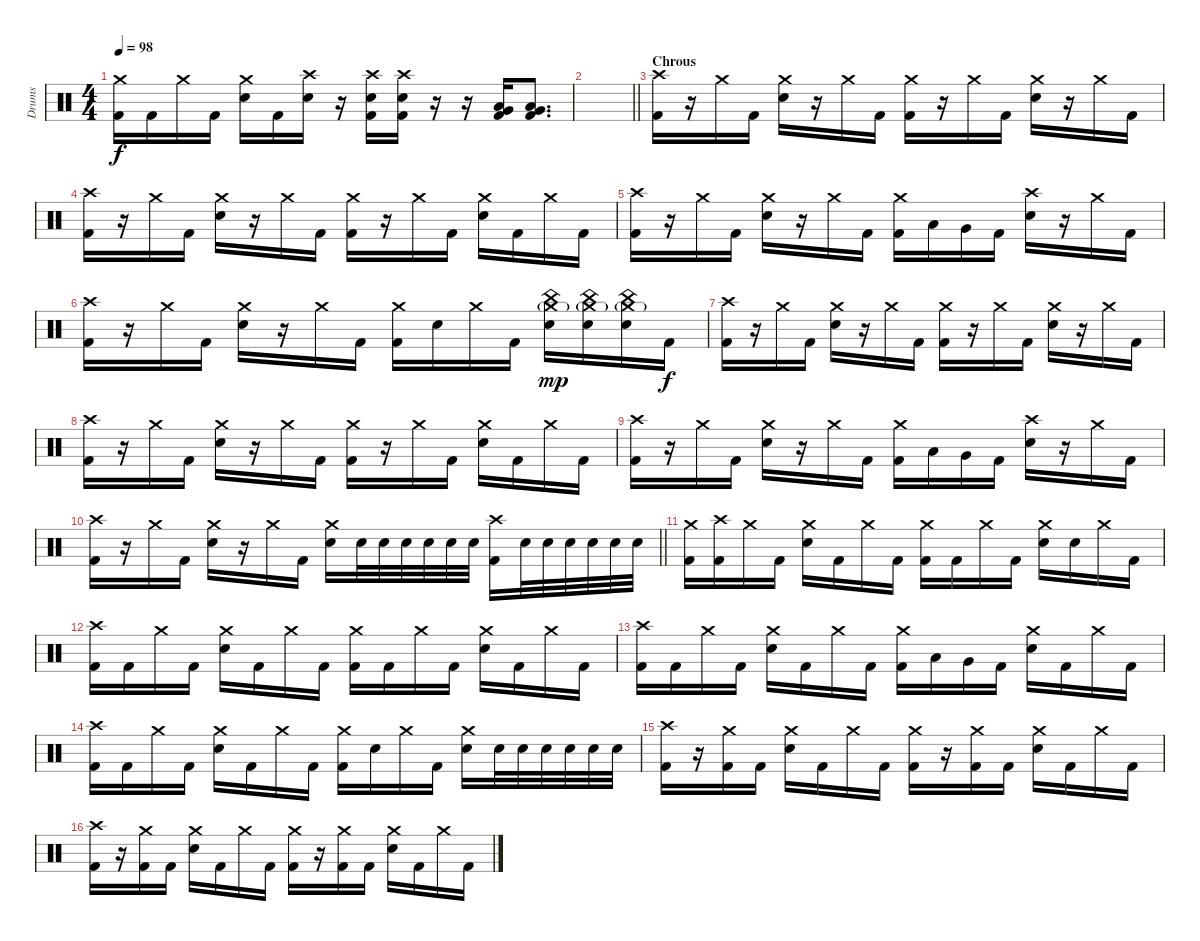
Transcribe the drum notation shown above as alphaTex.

\track ("Drums" "Drums") {instrument percussion}
\staff {score}
\articulation defaults
\ts (4 4)
\tempo 98
\clef neutral
\ks c
("Crash medium (hit)" "Kick (hit) 2").16{dy f} "Kick (hit) 2".16 "Crash medium (hit)".16 "Kick (hit) 2".16 ("Crash medium (hit)" "Snare (hit) 2").16 "Kick (hit) 2".16 ("Crash high (hit)" "Snare (hit) 2").16 r.16 ("Crash high (hit)" "Snare (hit) 2" "Kick (hit) 2").16 ("Crash high (hit)" "Snare (hit) 2" "Kick (hit) 2").16 r.16 r.16 ("Low Tom (hit)" "Very Low Tom (hit)" "Kick (hit) 2").16 ("Low Tom (hit)" "Very Low Tom (hit)" "Kick (hit) 2").8{d} |
\barLineRight lightlight
|
\section ("" "Chrous")
("Crash high (hit)" "Kick (hit) 2").16 r.16 "Crash medium (hit)".16 "Kick (hit) 2".16 ("Crash medium (hit)" "Snare (hit) 2").16 r.16 "Crash medium (hit)".16 "Kick (hit) 2".16 ("Crash medium (hit)" "Kick (hit) 2").16 r.16 "Crash medium (hit)".16 "Kick (hit) 2".16 ("Crash medium (hit)" "Snare (hit) 2").16 r.16 "Crash medium (hit)".16 "Kick (hit) 2".16 |
("Crash high (hit)" "Kick (hit) 2").16 r.16 "Crash medium (hit)".16 "Kick (hit) 2".16 ("Crash medium (hit)" "Snare (hit) 2").16 r.16 "Crash medium (hit)".16 "Kick (hit) 2".16 ("Crash medium (hit)" "Kick (hit) 2").16 r.16 "Crash medium (hit)".16 "Kick (hit) 2".16 ("Crash medium (hit)" "Snare (hit) 2").16 "Kick (hit) 2".16 "Crash medium (hit)".16 "Kick (hit) 2".16 |
("Crash high (hit)" "Kick (hit) 2").16 r.16 "Crash medium (hit)".16 "Kick (hit) 2".16 ("Crash medium (hit)" "Snare (hit) 2").16 r.16 "Crash medium (hit)".16 "Kick (hit) 2".16 ("Crash medium (hit)" "Kick (hit) 2").16 "Low Tom (hit)".16 "Very Low Tom (hit)".16 "Kick (hit) 2".16 ("Crash high (hit)" "Snare (hit) 2").16 r.16 "Crash medium (hit)".16 "Kick (hit) 2".16 |
("Crash high (hit)" "Kick (hit) 2").16 r.16 "Crash medium (hit)".16 "Kick (hit) 2".16 ("Crash medium (hit)" "Snare (hit) 2").16 r.16 "Crash medium (hit)".16 "Kick (hit) 2".16 ("Crash medium (hit)" "Kick (hit) 2").16 "Snare (hit) 2".16 "Crash medium (hit)".16 "Kick (hit) 2".16 ("China (hit)" "Crash medium (hit)"{g} "Snare (hit) 2").16{dy mp} ("China (hit)" "Crash medium (hit)"{g} "Snare (hit) 2").16 ("China (hit)" "Crash medium (hit)"{g} "Snare (hit) 2").16 "Kick (hit) 2".16{dy f} |
("Crash high (hit)" "Kick (hit) 2").16 r.16 "Crash medium (hit)".16 "Kick (hit) 2".16 ("Crash medium (hit)" "Snare (hit) 2").16 r.16 "Crash medium (hit)".16 "Kick (hit) 2".16 ("Crash medium (hit)" "Kick (hit) 2").16 r.16 "Crash medium (hit)".16 "Kick (hit) 2".16 ("Crash medium (hit)" "Snare (hit) 2").16 r.16 "Crash medium (hit)".16 "Kick (hit) 2".16 |
("Crash high (hit)" "Kick (hit) 2").16 r.16 "Crash medium (hit)".16 "Kick (hit) 2".16 ("Crash medium (hit)" "Snare (hit) 2").16 r.16 "Crash medium (hit)".16 "Kick (hit) 2".16 ("Crash medium (hit)" "Kick (hit) 2").16 r.16 "Crash medium (hit)".16 "Kick (hit) 2".16 ("Crash medium (hit)" "Snare (hit) 2").16 "Kick (hit) 2".16 "Crash medium (hit)".16 "Kick (hit) 2".16 |
("Crash high (hit)" "Kick (hit) 2").16 r.16 "Crash medium (hit)".16 "Kick (hit) 2".16 ("Crash medium (hit)" "Snare (hit) 2").16 r.16 "Crash medium (hit)".16 "Kick (hit) 2".16 ("Crash medium (hit)" "Kick (hit) 2").16 "Low Tom (hit)".16 "Very Low Tom (hit)".16 "Kick (hit) 2".16 ("Crash high (hit)" "Snare (hit) 2").16 r.16 "Crash medium (hit)".16 "Kick (hit) 2".16 |
\barLineRight lightlight
("Crash high (hit)" "Kick (hit) 2").16 r.16 "Crash medium (hit)".16 "Kick (hit) 2".16 ("Crash medium (hit)" "Snare (hit) 2").16 r.16 "Crash medium (hit)".16 "Kick (hit) 2".16 ("Crash medium (hit)" "Snare (hit) 2").16 "Snare (hit) 2".32 "Snare (hit) 2".32 "Snare (hit) 2".32 "Snare (hit) 2".32 "Snare (hit) 2".32 "Snare (hit) 2".32 ("Crash high (hit)" "Kick (hit) 2").16 "Snare (hit) 2".32 "Snare (hit) 2".32 "Snare (hit) 2".32 "Snare (hit) 2".32 "Snare (hit) 2".32 "Snare (hit) 2".32 |
("Crash medium (hit)" "Kick (hit) 2").16 ("Crash high (hit)" "Kick (hit) 2").16 "Crash medium (hit)".16 "Kick (hit) 2".16 ("Crash medium (hit)" "Snare (hit) 2").16 "Kick (hit) 2".16 "Crash medium (hit)".16 "Kick (hit) 2".16 ("Crash medium (hit)" "Kick (hit) 2").16 "Kick (hit) 2".16 "Crash medium (hit)".16 "Kick (hit) 2".16 ("Crash medium (hit)" "Snare (hit) 2").16 "Snare (hit) 2".16 "Crash medium (hit)".16 "Kick (hit) 2".16 |
("Crash high (hit)" "Kick (hit) 2").16 "Kick (hit) 2".16 "Crash medium (hit)".16 "Kick (hit) 2".16 ("Crash medium (hit)" "Snare (hit) 2").16 "Kick (hit) 2".16 "Crash medium (hit)".16 "Kick (hit) 2".16 ("Crash medium (hit)" "Kick (hit) 2").16 "Kick (hit) 2".16 "Crash medium (hit)".16 "Kick (hit) 2".16 ("Crash medium (hit)" "Snare (hit) 2").16 "Kick (hit) 2".16 "Crash medium (hit)".16 "Kick (hit) 2".16 |
("Crash high (hit)" "Kick (hit) 2").16 "Kick (hit) 2".16 "Crash medium (hit)".16 "Kick (hit) 2".16 ("Crash medium (hit)" "Snare (hit) 2").16 "Kick (hit) 2".16 "Crash medium (hit)".16 "Kick (hit) 2".16 ("Crash medium (hit)" "Kick (hit) 2").16 "Low Tom (hit)".16 "Very Low Tom (hit)".16 "Kick (hit) 2".16 ("Crash medium (hit)" "Snare (hit) 2").16 "Kick (hit) 2".16 "Crash medium (hit)".16 "Kick (hit) 2".16 |
("Crash high (hit)" "Kick (hit) 2").16 "Kick (hit) 2".16 "Crash medium (hit)".16 "Kick (hit) 2".16 ("Crash medium (hit)" "Snare (hit) 2").16 "Kick (hit) 2".16 "Crash medium (hit)".16 "Kick (hit) 2".16 ("Crash medium (hit)" "Kick (hit) 2").16 "Snare (hit) 2".16 "Crash medium (hit)".16 "Kick (hit) 2".16 ("Crash medium (hit)" "Snare (hit) 2").16 "Snare (hit) 2".32 "Snare (hit) 2".32 "Snare (hit) 2".32 "Snare (hit) 2".32 "Snare (hit) 2".32 "Snare (hit) 2".32 |
("Crash high (hit)" "Kick (hit) 2").16 r.16 ("Crash medium (hit)" "Kick (hit) 2").16 "Kick (hit) 2".16 ("Crash medium (hit)" "Snare (hit) 2").16 "Kick (hit) 2".16 "Crash medium (hit)".16 "Kick (hit) 2".16 ("Crash medium (hit)" "Kick (hit) 2").16 r.16 ("Crash medium (hit)" "Kick (hit) 2").16 "Kick (hit) 2".16 ("Crash medium (hit)" "Snare (hit) 2").16 "Kick (hit) 2".16 "Crash medium (hit)".16 "Kick (hit) 2".16 |
("Crash high (hit)" "Kick (hit) 2").16 r.16 ("Crash medium (hit)" "Kick (hit) 2").16 "Kick (hit) 2".16 ("Crash medium (hit)" "Snare (hit) 2").16 "Kick (hit) 2".16 "Crash medium (hit)".16 "Kick (hit) 2".16 ("Crash medium (hit)" "Kick (hit) 2").16 r.16 ("Crash medium (hit)" "Kick (hit) 2").16 "Kick (hit) 2".16 ("Crash medium (hit)" "Snare (hit) 2").16 "Kick (hit) 2".16 "Crash medium (hit)".16 "Kick (hit) 2".16
